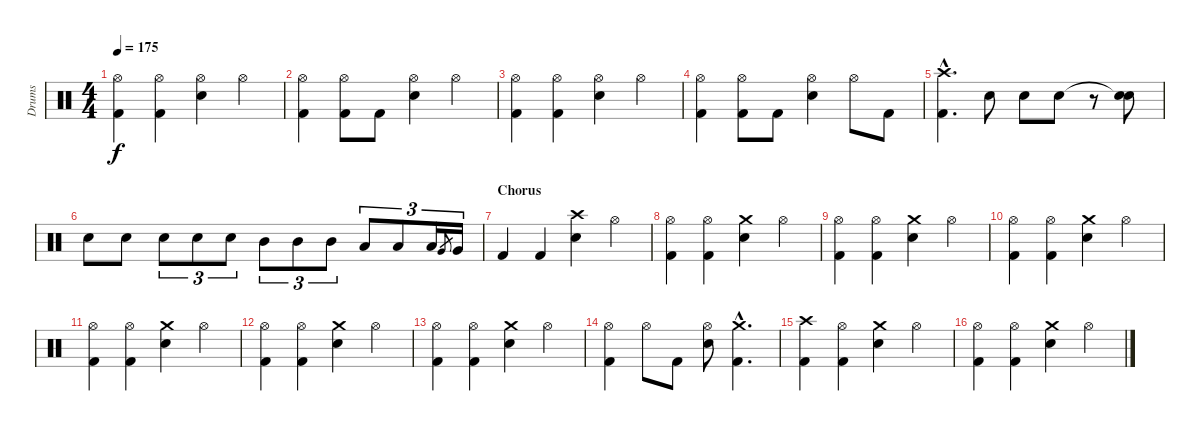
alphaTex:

\track ("Drums" "Drums") {instrument percussion}
\staff {score}
\articulation defaults
\ts (4 4)
\tempo 175
\clef neutral
\ks c
("Hi-Hat (open)" "Kick (hit) 2").4{dy f} ("Hi-Hat (open)" "Kick (hit) 2").4 ("Hi-Hat (open)" "Snare (hit) 2").4 "Hi-Hat (open)".4 |
("Hi-Hat (open)" "Kick (hit) 2").4 ("Hi-Hat (open)" "Kick (hit) 2").8 "Kick (hit) 2".8 ("Hi-Hat (open)" "Snare (hit) 2").4 "Hi-Hat (open)".4 |
("Hi-Hat (open)" "Kick (hit) 2").4 ("Hi-Hat (open)" "Kick (hit) 2").4 ("Hi-Hat (open)" "Snare (hit) 2").4 "Hi-Hat (open)".4 |
("Hi-Hat (open)" "Kick (hit) 2").4 ("Hi-Hat (open)" "Kick (hit) 2").8 "Kick (hit) 2".8 ("Hi-Hat (open)" "Snare (hit) 2").4 "Hi-Hat (open)".8 "Kick (hit) 2".8 |
("Crash high (hit)"{hac} "Kick (hit) 2"{hac}).4{d} "Snare (hit) 2".8 "Snare (hit) 2".8 "Snare (hit) 2".8 r.8 ("Snare (hit)"{t} "Snare (hit) 2").8 |
"Snare (hit) 2".8 "Snare (hit) 2".8 "Snare (hit) 2".8{tu (3 2)} "Snare (hit) 2".8{tu (3 2)} "Snare (hit) 2".8{tu (3 2)} "Mid Tom (hit)".8{tu (3 2)} "Mid Tom (hit)".8{tu (3 2)} "Mid Tom (hit)".8{tu (3 2)} "Low Tom (hit)".8{tu (3 2)} "Low Tom (hit)".8{tu (3 2)} "Low Tom (hit)".16{tu (3 2)} "Very Low Tom (hit)".8{gr} "Very Low Tom (hit)".16{tu (3 2)} |
\section ("" "Chorus")
"Kick (hit) 2".4 "Kick (hit) 2".4 ("Crash high (hit)" "Snare (hit) 2").4 "Hi-Hat (open)".4 |
("Hi-Hat (open)" "Kick (hit) 2").4 ("Hi-Hat (open)" "Kick (hit) 2").4 ("Crash medium (hit)" "Snare (hit) 2").4 "Hi-Hat (open)".4 |
("Hi-Hat (open)" "Kick (hit) 2").4 ("Hi-Hat (open)" "Kick (hit) 2").4 ("Crash medium (hit)" "Snare (hit) 2").4 "Hi-Hat (open)".4 |
("Hi-Hat (open)" "Kick (hit) 2").4 ("Hi-Hat (open)" "Kick (hit) 2").4 ("Crash medium (hit)" "Snare (hit) 2").4 "Hi-Hat (open)".4 |
("Hi-Hat (open)" "Kick (hit) 2").4 ("Hi-Hat (open)" "Kick (hit) 2").4 ("Crash medium (hit)" "Snare (hit) 2").4 "Hi-Hat (open)".4 |
("Hi-Hat (open)" "Kick (hit) 2").4 ("Hi-Hat (open)" "Kick (hit) 2").4 ("Crash medium (hit)" "Snare (hit) 2").4 "Hi-Hat (open)".4 |
("Hi-Hat (open)" "Kick (hit) 2").4 ("Hi-Hat (open)" "Kick (hit) 2").4 ("Crash medium (hit)" "Snare (hit) 2").4 "Hi-Hat (open)".4 |
("Hi-Hat (open)" "Kick (hit) 2").4 "Hi-Hat (open)".8 "Kick (hit) 2".8 ("Hi-Hat (open)" "Snare (hit) 2").8 ("Crash medium (hit)"{hac} "Kick (hit) 2"{hac}).4{d} |
("Crash high (hit)" "Kick (hit) 2").4 ("Hi-Hat (open)" "Kick (hit) 2").4 ("Crash medium (hit)" "Snare (hit) 2").4 "Hi-Hat (open)".4 |
("Hi-Hat (open)" "Kick (hit) 2").4 ("Hi-Hat (open)" "Kick (hit) 2").4 ("Crash medium (hit)" "Snare (hit) 2").4 "Hi-Hat (open)".4
